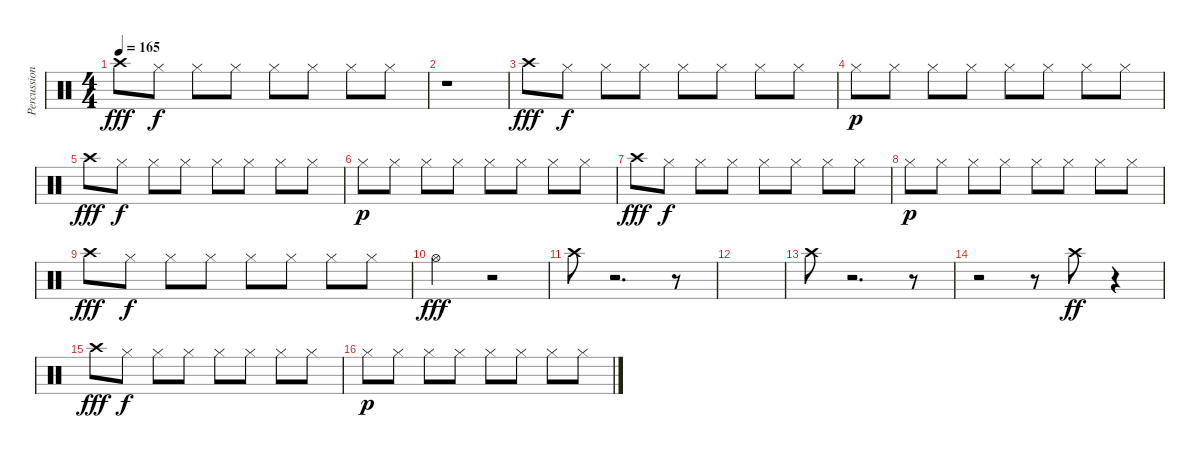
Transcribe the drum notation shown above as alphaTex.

\track ("Percussion" "Percussion") {instrument percussion}
\staff {score}
\articulation defaults
\ts (4 4)
\tempo 165
\clef neutral
\ks c "Crash high (hit)".8{dy fff} "Hi-Hat (closed)".8{dy f} "Hi-Hat (closed)".8 "Hi-Hat (closed)".8 "Hi-Hat (closed)".8 "Hi-Hat (closed)".8 "Hi-Hat (closed)".8 "Hi-Hat (closed)".8
|
r.1 |
"Crash high (hit)".8{dy fff} "Hi-Hat (closed)".8{dy f} "Hi-Hat (closed)".8 "Hi-Hat (closed)".8 "Hi-Hat (closed)".8 "Hi-Hat (closed)".8 "Hi-Hat (closed)".8 "Hi-Hat (closed)".8 |
"Hi-Hat (closed)".8{dy p} "Hi-Hat (closed)".8 "Hi-Hat (closed)".8 "Hi-Hat (closed)".8 "Hi-Hat (closed)".8 "Hi-Hat (closed)".8 "Hi-Hat (closed)".8 "Hi-Hat (closed)".8 |
"Crash high (hit)".8{dy fff} "Hi-Hat (closed)".8{dy f} "Hi-Hat (closed)".8 "Hi-Hat (closed)".8 "Hi-Hat (closed)".8 "Hi-Hat (closed)".8 "Hi-Hat (closed)".8 "Hi-Hat (closed)".8 |
"Hi-Hat (closed)".8{dy p} "Hi-Hat (closed)".8 "Hi-Hat (closed)".8 "Hi-Hat (closed)".8 "Hi-Hat (closed)".8 "Hi-Hat (closed)".8 "Hi-Hat (closed)".8 "Hi-Hat (closed)".8 |
"Crash high (hit)".8{dy fff} "Hi-Hat (closed)".8{dy f} "Hi-Hat (closed)".8 "Hi-Hat (closed)".8 "Hi-Hat (closed)".8 "Hi-Hat (closed)".8 "Hi-Hat (closed)".8 "Hi-Hat (closed)".8 |
"Hi-Hat (closed)".8{dy p} "Hi-Hat (closed)".8 "Hi-Hat (closed)".8 "Hi-Hat (closed)".8 "Hi-Hat (closed)".8 "Hi-Hat (closed)".8 "Hi-Hat (closed)".8 "Hi-Hat (closed)".8 |
"Crash high (hit)".8{dy fff} "Hi-Hat (closed)".8{dy f} "Hi-Hat (closed)".8 "Hi-Hat (closed)".8 "Hi-Hat (closed)".8 "Hi-Hat (closed)".8 "Hi-Hat (closed)".8 "Hi-Hat (closed)".8 |
"Hi-Hat (open)".2{dy fff} r.2 |
"Crash high (hit)".8 r.2{d} r.8 |
|
"Crash high (hit)".8 r.2{d} r.8 |
r.2 r.8 "Crash high (hit)".8{dy ff} r.4 |
"Crash high (hit)".8{dy fff} "Hi-Hat (closed)".8{dy f} "Hi-Hat (closed)".8 "Hi-Hat (closed)".8 "Hi-Hat (closed)".8 "Hi-Hat (closed)".8 "Hi-Hat (closed)".8 "Hi-Hat (closed)".8 |
"Hi-Hat (closed)".8{dy p} "Hi-Hat (closed)".8 "Hi-Hat (closed)".8 "Hi-Hat (closed)".8 "Hi-Hat (closed)".8 "Hi-Hat (closed)".8 "Hi-Hat (closed)".8 "Hi-Hat (closed)".8
